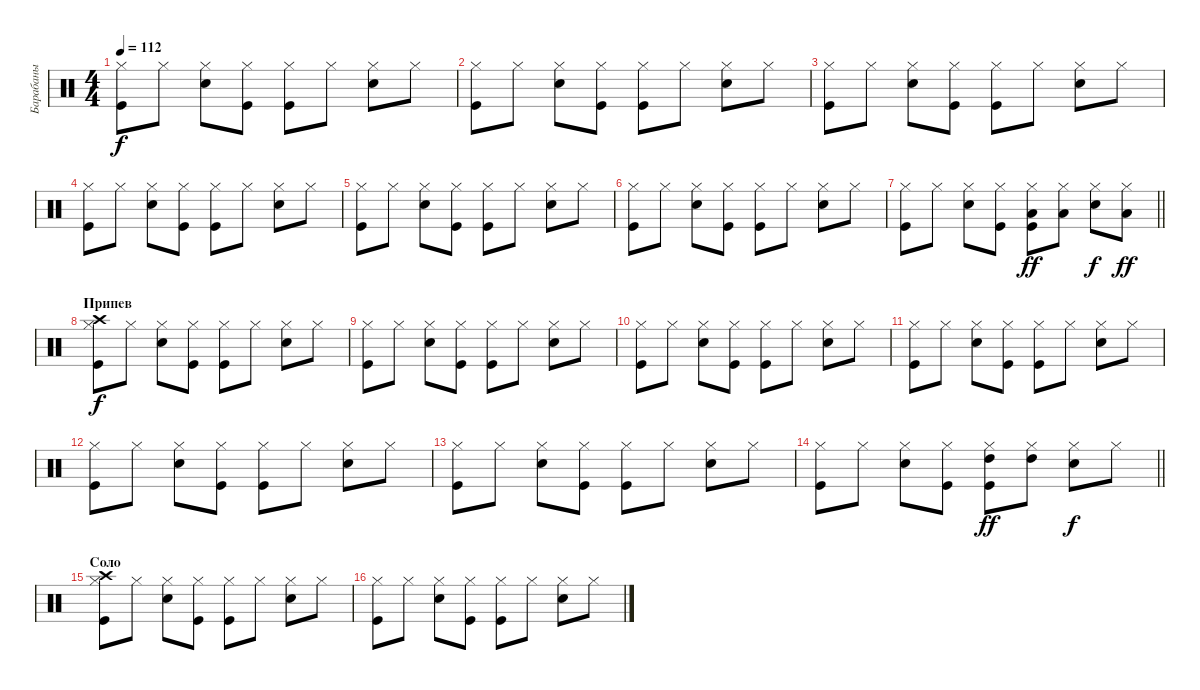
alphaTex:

\track ("Барабаны" "Барабаны") {instrument percussion}
\staff {score}
\articulation defaults
\ts (4 4)
\tempo 112
\clef neutral
\ks c
("Kick (hit)" "Hi-Hat (closed)").8{dy f} "Hi-Hat (closed)".8 ("Snare (hit) 2" "Hi-Hat (closed)").8 ("Kick (hit)" "Hi-Hat (closed)").8 ("Kick (hit)" "Hi-Hat (closed)").8 "Hi-Hat (closed)".8 ("Snare (hit) 2" "Hi-Hat (closed)").8 "Hi-Hat (closed)".8 |
("Kick (hit)" "Hi-Hat (closed)").8 "Hi-Hat (closed)".8 ("Snare (hit) 2" "Hi-Hat (closed)").8 ("Kick (hit)" "Hi-Hat (closed)").8 ("Kick (hit)" "Hi-Hat (closed)").8 "Hi-Hat (closed)".8 ("Snare (hit) 2" "Hi-Hat (closed)").8 "Hi-Hat (closed)".8 |
("Kick (hit)" "Hi-Hat (closed)").8 "Hi-Hat (closed)".8 ("Snare (hit) 2" "Hi-Hat (closed)").8 ("Kick (hit)" "Hi-Hat (closed)").8 ("Kick (hit)" "Hi-Hat (closed)").8 "Hi-Hat (closed)".8 ("Snare (hit) 2" "Hi-Hat (closed)").8 "Hi-Hat (closed)".8 |
("Kick (hit)" "Hi-Hat (closed)").8 "Hi-Hat (closed)".8 ("Snare (hit) 2" "Hi-Hat (closed)").8 ("Kick (hit)" "Hi-Hat (closed)").8 ("Kick (hit)" "Hi-Hat (closed)").8 "Hi-Hat (closed)".8 ("Snare (hit) 2" "Hi-Hat (closed)").8 "Hi-Hat (closed)".8 |
("Kick (hit)" "Hi-Hat (closed)").8 "Hi-Hat (closed)".8 ("Snare (hit) 2" "Hi-Hat (closed)").8 ("Kick (hit)" "Hi-Hat (closed)").8 ("Kick (hit)" "Hi-Hat (closed)").8 "Hi-Hat (closed)".8 ("Snare (hit) 2" "Hi-Hat (closed)").8 "Hi-Hat (closed)".8 |
("Kick (hit)" "Hi-Hat (closed)").8 "Hi-Hat (closed)".8 ("Snare (hit) 2" "Hi-Hat (closed)").8 ("Kick (hit)" "Hi-Hat (closed)").8 ("Kick (hit)" "Hi-Hat (closed)").8 "Hi-Hat (closed)".8 ("Snare (hit) 2" "Hi-Hat (closed)").8 "Hi-Hat (closed)".8 |
\barLineRight lightlight
("Kick (hit)" "Hi-Hat (closed)").8 "Hi-Hat (closed)".8 ("Snare (hit) 2" "Hi-Hat (closed)").8 ("Kick (hit)" "Hi-Hat (closed)").8 ("Kick (hit)" "Hi-Hat (closed)" "Low Floor Tom (hit)").8{dy ff} ("Hi-Hat (closed)" "Low Floor Tom (hit)").8 ("Snare (hit) 2" "Hi-Hat (closed)").8{dy f} ("Hi-Hat (closed)" "Low Floor Tom (hit)").8{dy ff} |
\section ("" "Припев")
("Kick (hit)" "Hi-Hat (closed)" "Crash high (hit)").8{dy f} "Hi-Hat (closed)".8 ("Snare (hit) 2" "Hi-Hat (closed)").8 ("Kick (hit)" "Hi-Hat (closed)").8 ("Kick (hit)" "Hi-Hat (closed)").8 "Hi-Hat (closed)".8 ("Snare (hit) 2" "Hi-Hat (closed)").8 "Hi-Hat (closed)".8 |
("Kick (hit)" "Hi-Hat (closed)").8 "Hi-Hat (closed)".8 ("Snare (hit) 2" "Hi-Hat (closed)").8 ("Kick (hit)" "Hi-Hat (closed)").8 ("Kick (hit)" "Hi-Hat (closed)").8 "Hi-Hat (closed)".8 ("Snare (hit) 2" "Hi-Hat (closed)").8 "Hi-Hat (closed)".8 |
("Kick (hit)" "Hi-Hat (closed)").8 "Hi-Hat (closed)".8 ("Snare (hit) 2" "Hi-Hat (closed)").8 ("Kick (hit)" "Hi-Hat (closed)").8 ("Kick (hit)" "Hi-Hat (closed)").8 "Hi-Hat (closed)".8 ("Snare (hit) 2" "Hi-Hat (closed)").8 "Hi-Hat (closed)".8 |
("Kick (hit)" "Hi-Hat (closed)").8 "Hi-Hat (closed)".8 ("Snare (hit) 2" "Hi-Hat (closed)").8 ("Kick (hit)" "Hi-Hat (closed)").8 ("Kick (hit)" "Hi-Hat (closed)").8 "Hi-Hat (closed)".8 ("Snare (hit) 2" "Hi-Hat (closed)").8 "Hi-Hat (closed)".8 |
("Kick (hit)" "Hi-Hat (closed)").8 "Hi-Hat (closed)".8 ("Snare (hit) 2" "Hi-Hat (closed)").8 ("Kick (hit)" "Hi-Hat (closed)").8 ("Kick (hit)" "Hi-Hat (closed)").8 "Hi-Hat (closed)".8 ("Snare (hit) 2" "Hi-Hat (closed)").8 "Hi-Hat (closed)".8 |
("Kick (hit)" "Hi-Hat (closed)").8 "Hi-Hat (closed)".8 ("Snare (hit) 2" "Hi-Hat (closed)").8 ("Kick (hit)" "Hi-Hat (closed)").8 ("Kick (hit)" "Hi-Hat (closed)").8 "Hi-Hat (closed)".8 ("Snare (hit) 2" "Hi-Hat (closed)").8 "Hi-Hat (closed)".8 |
\barLineRight lightlight
("Kick (hit)" "Hi-Hat (closed)").8 "Hi-Hat (closed)".8 ("Snare (hit) 2" "Hi-Hat (closed)").8 ("Kick (hit)" "Hi-Hat (closed)").8 ("Kick (hit)" "Hi-Hat (closed)" "High Tom (hit)").8{dy ff} ("Hi-Hat (closed)" "High Tom (hit)").8 ("Snare (hit) 2" "Hi-Hat (closed)").8{dy f} "Hi-Hat (closed)".8 |
\section ("" "Соло")
("Kick (hit)" "Hi-Hat (closed)" "Crash high (hit)").8 "Hi-Hat (closed)".8 ("Snare (hit) 2" "Hi-Hat (closed)").8 ("Kick (hit)" "Hi-Hat (closed)").8 ("Kick (hit)" "Hi-Hat (closed)").8 "Hi-Hat (closed)".8 ("Snare (hit) 2" "Hi-Hat (closed)").8 "Hi-Hat (closed)".8 |
("Kick (hit)" "Hi-Hat (closed)").8 "Hi-Hat (closed)".8 ("Snare (hit) 2" "Hi-Hat (closed)").8 ("Kick (hit)" "Hi-Hat (closed)").8 ("Kick (hit)" "Hi-Hat (closed)").8 "Hi-Hat (closed)".8 ("Snare (hit) 2" "Hi-Hat (closed)").8 "Hi-Hat (closed)".8
